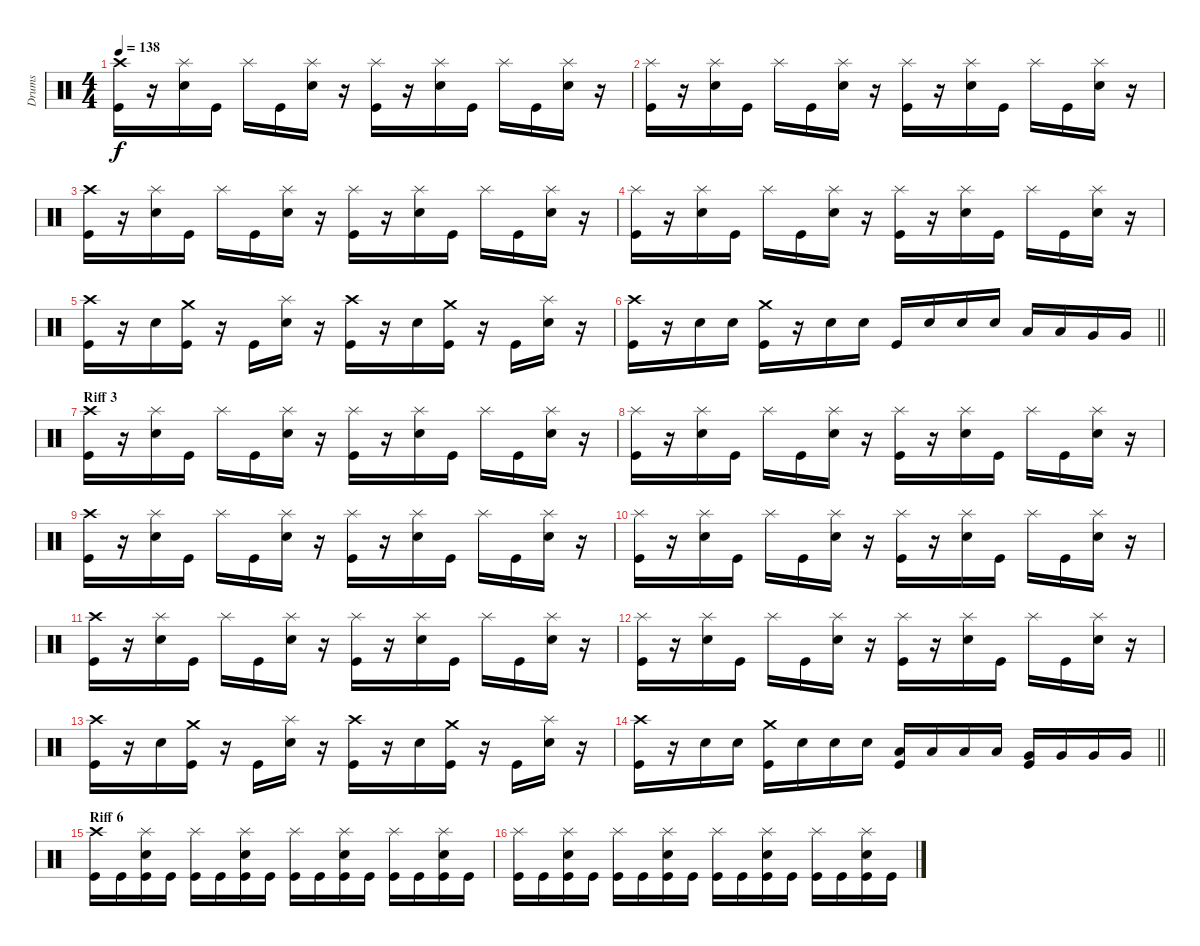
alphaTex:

\track ("Drums" "Drums") {instrument percussion}
\staff {score}
\articulation defaults
\ts (4 4)
\tempo 138
\clef neutral
\ks c
("Crash high (hit)" "Kick (hit)").16{dy f} r.16 ("Splash (hit)" "Electric Snare (hit)").16 "Kick (hit)".16 "Splash (hit)".16 "Kick (hit)".16 ("Splash (hit)" "Electric Snare (hit)").16 r.16 ("Splash (hit)" "Kick (hit)").16 r.16 ("Splash (hit)" "Electric Snare (hit)").16 "Kick (hit)".16 "Splash (hit)".16 "Kick (hit)".16 ("Splash (hit)" "Electric Snare (hit)").16 r.16 |
("Splash (hit)" "Kick (hit)").16 r.16 ("Splash (hit)" "Electric Snare (hit)").16 "Kick (hit)".16 "Splash (hit)".16 "Kick (hit)".16 ("Splash (hit)" "Electric Snare (hit)").16 r.16 ("Splash (hit)" "Kick (hit)").16 r.16 ("Splash (hit)" "Electric Snare (hit)").16 "Kick (hit)".16 "Splash (hit)".16 "Kick (hit)".16 ("Splash (hit)" "Electric Snare (hit)").16 r.16 |
("Crash high (hit)" "Kick (hit)").16 r.16 ("Splash (hit)" "Electric Snare (hit)").16 "Kick (hit)".16 "Splash (hit)".16 "Kick (hit)".16 ("Splash (hit)" "Electric Snare (hit)").16 r.16 ("Splash (hit)" "Kick (hit)").16 r.16 ("Splash (hit)" "Electric Snare (hit)").16 "Kick (hit)".16 "Splash (hit)".16 "Kick (hit)".16 ("Splash (hit)" "Electric Snare (hit)").16 r.16 |
("Splash (hit)" "Kick (hit)").16 r.16 ("Splash (hit)" "Electric Snare (hit)").16 "Kick (hit)".16 "Splash (hit)".16 "Kick (hit)".16 ("Splash (hit)" "Electric Snare (hit)").16 r.16 ("Splash (hit)" "Kick (hit)").16 r.16 ("Splash (hit)" "Electric Snare (hit)").16 "Kick (hit)".16 "Splash (hit)".16 "Kick (hit)".16 ("Splash (hit)" "Electric Snare (hit)").16 r.16 |
("Crash high (hit)" "Kick (hit)").16 r.16 "Electric Snare (hit)".16 ("Crash medium (hit)" "Kick (hit)").16 r.16 "Kick (hit)".16 ("Splash (hit)" "Electric Snare (hit)").16 r.16 ("Crash high (hit)" "Kick (hit)").16 r.16 "Electric Snare (hit)".16 ("Crash medium (hit)" "Kick (hit)").16 r.16 "Kick (hit)".16 ("Splash (hit)" "Electric Snare (hit)").16 r.16 |
\barLineRight lightlight
("Crash high (hit)" "Kick (hit)").16 r.16 "Electric Snare (hit)".16 "Electric Snare (hit)".16 ("Crash medium (hit)" "Kick (hit)").16 r.16 "Electric Snare (hit)".16 "Electric Snare (hit)".16 "Kick (hit)".16 "Electric Snare (hit)".16 "Electric Snare (hit)".16 "Electric Snare (hit)".16 "Low Tom (hit)".16 "Low Tom (hit)".16 "Very Low Tom (hit)".16 "Very Low Tom (hit)".16 |
\section ("" "Riff 3")
("Crash high (hit)" "Kick (hit)").16 r.16 ("Splash (hit)" "Electric Snare (hit)").16 "Kick (hit)".16 "Splash (hit)".16 "Kick (hit)".16 ("Splash (hit)" "Electric Snare (hit)").16 r.16 ("Splash (hit)" "Kick (hit)").16 r.16 ("Splash (hit)" "Electric Snare (hit)").16 "Kick (hit)".16 "Splash (hit)".16 "Kick (hit)".16 ("Splash (hit)" "Electric Snare (hit)").16 r.16 |
("Splash (hit)" "Kick (hit)").16 r.16 ("Splash (hit)" "Electric Snare (hit)").16 "Kick (hit)".16 "Splash (hit)".16 "Kick (hit)".16 ("Splash (hit)" "Electric Snare (hit)").16 r.16 ("Splash (hit)" "Kick (hit)").16 r.16 ("Splash (hit)" "Electric Snare (hit)").16 "Kick (hit)".16 "Splash (hit)".16 "Kick (hit)".16 ("Splash (hit)" "Electric Snare (hit)").16 r.16 |
("Crash high (hit)" "Kick (hit)").16 r.16 ("Splash (hit)" "Electric Snare (hit)").16 "Kick (hit)".16 "Splash (hit)".16 "Kick (hit)".16 ("Splash (hit)" "Electric Snare (hit)").16 r.16 ("Splash (hit)" "Kick (hit)").16 r.16 ("Splash (hit)" "Electric Snare (hit)").16 "Kick (hit)".16 "Splash (hit)".16 "Kick (hit)".16 ("Splash (hit)" "Electric Snare (hit)").16 r.16 |
("Splash (hit)" "Kick (hit)").16 r.16 ("Splash (hit)" "Electric Snare (hit)").16 "Kick (hit)".16 "Splash (hit)".16 "Kick (hit)".16 ("Splash (hit)" "Electric Snare (hit)").16 r.16 ("Splash (hit)" "Kick (hit)").16 r.16 ("Splash (hit)" "Electric Snare (hit)").16 "Kick (hit)".16 "Splash (hit)".16 "Kick (hit)".16 ("Splash (hit)" "Electric Snare (hit)").16 r.16 |
("Crash high (hit)" "Kick (hit)").16 r.16 ("Splash (hit)" "Electric Snare (hit)").16 "Kick (hit)".16 "Splash (hit)".16 "Kick (hit)".16 ("Splash (hit)" "Electric Snare (hit)").16 r.16 ("Splash (hit)" "Kick (hit)").16 r.16 ("Splash (hit)" "Electric Snare (hit)").16 "Kick (hit)".16 "Splash (hit)".16 "Kick (hit)".16 ("Splash (hit)" "Electric Snare (hit)").16 r.16 |
("Splash (hit)" "Kick (hit)").16 r.16 ("Splash (hit)" "Electric Snare (hit)").16 "Kick (hit)".16 "Splash (hit)".16 "Kick (hit)".16 ("Splash (hit)" "Electric Snare (hit)").16 r.16 ("Splash (hit)" "Kick (hit)").16 r.16 ("Splash (hit)" "Electric Snare (hit)").16 "Kick (hit)".16 "Splash (hit)".16 "Kick (hit)".16 ("Splash (hit)" "Electric Snare (hit)").16 r.16 |
("Crash high (hit)" "Kick (hit)").16 r.16 "Electric Snare (hit)".16 ("Crash medium (hit)" "Kick (hit)").16 r.16 "Kick (hit)".16 ("Splash (hit)" "Electric Snare (hit)").16 r.16 ("Crash high (hit)" "Kick (hit)").16 r.16 "Electric Snare (hit)".16 ("Crash medium (hit)" "Kick (hit)").16 r.16 "Kick (hit)".16 ("Splash (hit)" "Electric Snare (hit)").16 r.16 |
\barLineRight lightlight
("Crash high (hit)" "Kick (hit)").16 r.16 "Electric Snare (hit)".16 "Electric Snare (hit)".16 ("Crash medium (hit)" "Kick (hit)").16 "Electric Snare (hit)".16 "Electric Snare (hit)".16 "Electric Snare (hit)".16 ("Low Tom (hit)" "Kick (hit)").16 "Low Tom (hit)".16 "Low Tom (hit)".16 "Low Tom (hit)".16 ("Very Low Tom (hit)" "Kick (hit)").16 "Very Low Tom (hit)".16 "Very Low Tom (hit)".16 "Very Low Tom (hit)".16 |
\section ("" "Riff 6")
("Crash high (hit)" "Kick (hit)").16 "Kick (hit)".16 ("Splash (hit)" "Electric Snare (hit)" "Kick (hit)").16 "Kick (hit)".16 ("Splash (hit)" "Kick (hit)").16 "Kick (hit)".16 ("Splash (hit)" "Electric Snare (hit)" "Kick (hit)").16 "Kick (hit)".16 ("Splash (hit)" "Kick (hit)").16 "Kick (hit)".16 ("Splash (hit)" "Electric Snare (hit)" "Kick (hit)").16 "Kick (hit)".16 ("Splash (hit)" "Kick (hit)").16 "Kick (hit)".16 ("Splash (hit)" "Electric Snare (hit)" "Kick (hit)").16 "Kick (hit)".16 |
("Splash (hit)" "Kick (hit)").16 "Kick (hit)".16 ("Splash (hit)" "Electric Snare (hit)" "Kick (hit)").16 "Kick (hit)".16 ("Splash (hit)" "Kick (hit)").16 "Kick (hit)".16 ("Splash (hit)" "Electric Snare (hit)" "Kick (hit)").16 "Kick (hit)".16 ("Splash (hit)" "Kick (hit)").16 "Kick (hit)".16 ("Splash (hit)" "Electric Snare (hit)" "Kick (hit)").16 "Kick (hit)".16 ("Splash (hit)" "Kick (hit)").16 "Kick (hit)".16 ("Splash (hit)" "Electric Snare (hit)" "Kick (hit)").16 "Kick (hit)".16
